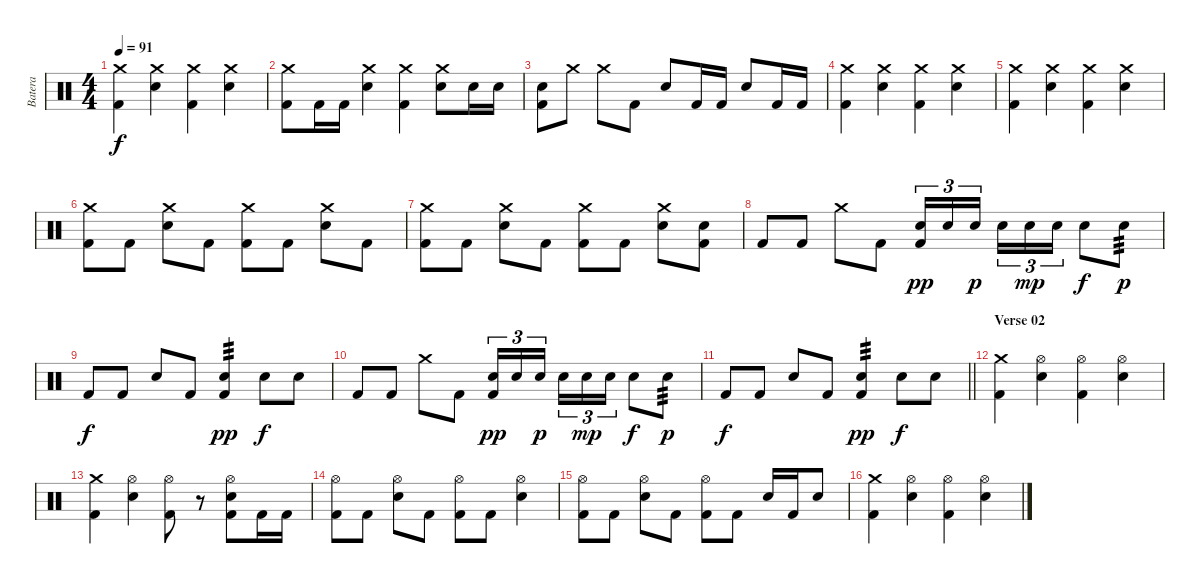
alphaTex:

\track ("Batera" "Batera") {instrument percussion}
\staff {score}
\articulation defaults
\ts (4 4)
\tempo 91
\clef neutral
\ks c
("Crash medium (hit)" "Kick (hit) 2").4{dy f} ("Crash medium (hit)" "Electric Snare (hit)").4 ("Crash medium (hit)" "Kick (hit) 2").4 ("Crash medium (hit)" "Electric Snare (hit)").4 |
("Crash medium (hit)" "Kick (hit) 2").8 "Kick (hit) 2".16 "Kick (hit) 2".16 ("Crash medium (hit)" "Electric Snare (hit)").4 ("Crash medium (hit)" "Kick (hit) 2").4 ("Crash medium (hit)" "Electric Snare (hit)").8 "Electric Snare (hit)".16 "Electric Snare (hit)".16 |
("Electric Snare (hit)" "Kick (hit) 2").8 "Crash medium (hit)".8 "Crash medium (hit)".8 "Kick (hit) 2".8 "Electric Snare (hit)".8 "Kick (hit) 2".16 "Kick (hit) 2".16 "Electric Snare (hit)".8 "Kick (hit) 2".16 "Kick (hit) 2".16 |
("Crash medium (hit)" "Kick (hit) 2").4 ("Crash medium (hit)" "Electric Snare (hit)").4 ("Crash medium (hit)" "Kick (hit) 2").4 ("Crash medium (hit)" "Electric Snare (hit)").4 |
("Crash medium (hit)" "Kick (hit) 2").4 ("Crash medium (hit)" "Electric Snare (hit)").4 ("Crash medium (hit)" "Kick (hit) 2").4 ("Crash medium (hit)" "Electric Snare (hit)").4 |
("Crash medium (hit)" "Kick (hit) 2").8 "Kick (hit) 2".8 ("Crash medium (hit)" "Electric Snare (hit)").8 "Kick (hit) 2".8 ("Crash medium (hit)" "Kick (hit) 2").8 "Kick (hit) 2".8 ("Crash medium (hit)" "Electric Snare (hit)").8 "Kick (hit) 2".8 |
("Crash medium (hit)" "Kick (hit) 2").8 "Kick (hit) 2".8 ("Crash medium (hit)" "Electric Snare (hit)").8 "Kick (hit) 2".8 ("Crash medium (hit)" "Kick (hit) 2").8 "Kick (hit) 2".8 ("Crash medium (hit)" "Electric Snare (hit)").8 ("Electric Snare (hit)" "Kick (hit) 2").8 |
"Kick (hit) 2".8 "Kick (hit) 2".8 "Crash medium (hit)".8 "Kick (hit) 2".8 ("Electric Snare (hit)" "Kick (hit) 2").16{tu (3 2) dy pp} "Electric Snare (hit)".16{tu (3 2)} "Electric Snare (hit)".16{tu (3 2) dy p beam splitsecondary} "Electric Snare (hit)".16{tu (3 2)} "Electric Snare (hit)".16{tu (3 2) dy mp} "Electric Snare (hit)".16{tu (3 2)} "Electric Snare (hit)".8{dy f} "Electric Snare (hit)".8{tp 3 dy p} |
"Kick (hit) 2".8{dy f} "Kick (hit) 2".8 "Electric Snare (hit)".8 "Kick (hit) 2".8 ("Electric Snare (hit)" "Kick (hit) 2").4{tp 3 dy pp} "Electric Snare (hit)".8{dy f} "Electric Snare (hit)".8 |
"Kick (hit) 2".8 "Kick (hit) 2".8 "Crash medium (hit)".8 "Kick (hit) 2".8 ("Electric Snare (hit)" "Kick (hit) 2").16{tu (3 2) dy pp} "Electric Snare (hit)".16{tu (3 2)} "Electric Snare (hit)".16{tu (3 2) dy p beam splitsecondary} "Electric Snare (hit)".16{tu (3 2)} "Electric Snare (hit)".16{tu (3 2) dy mp} "Electric Snare (hit)".16{tu (3 2)} "Electric Snare (hit)".8{dy f} "Electric Snare (hit)".8{tp 3 dy p} |
\barLineRight lightlight "Kick (hit) 2".8{dy f} "Kick (hit) 2".8 "Electric Snare (hit)".8 "Kick (hit) 2".8
("Electric Snare (hit)" "Kick (hit) 2").4{tp 3 dy pp} "Electric Snare (hit)".8{dy f} "Electric Snare (hit)".8 |
\section ("" "Verse 02")
("Crash medium (hit)" "Kick (hit) 2").4 ("Hi-Hat (open)" "Electric Snare (hit)").4 ("Hi-Hat (open)" "Kick (hit) 2").4 ("Hi-Hat (open)" "Electric Snare (hit)").4 |
("Crash medium (hit)" "Kick (hit) 2").4 ("Hi-Hat (open)" "Electric Snare (hit)").4 ("Hi-Hat (open)" "Kick (hit) 2").8 r.8 ("Hi-Hat (open)" "Electric Snare (hit)" "Kick (hit) 2").8 "Kick (hit) 2".16 "Kick (hit) 2".16 |
("Hi-Hat (open)" "Kick (hit) 2").8 "Kick (hit) 2".8 ("Hi-Hat (open)" "Electric Snare (hit)").8 "Kick (hit) 2".8 ("Hi-Hat (open)" "Kick (hit) 2").8 "Kick (hit) 2".8 ("Hi-Hat (open)" "Electric Snare (hit)").4 |
("Hi-Hat (open)" "Kick (hit) 2").8 "Kick (hit) 2".8 ("Hi-Hat (open)" "Electric Snare (hit)").8 "Kick (hit) 2".8 ("Hi-Hat (open)" "Kick (hit) 2").8 "Kick (hit) 2".8 "Electric Snare (hit)".16 "Kick (hit) 2".16 "Electric Snare (hit)".8 |
("Crash medium (hit)" "Kick (hit) 2").4 ("Hi-Hat (open)" "Electric Snare (hit)").4 ("Hi-Hat (open)" "Kick (hit) 2").4 ("Hi-Hat (open)" "Electric Snare (hit)").4
